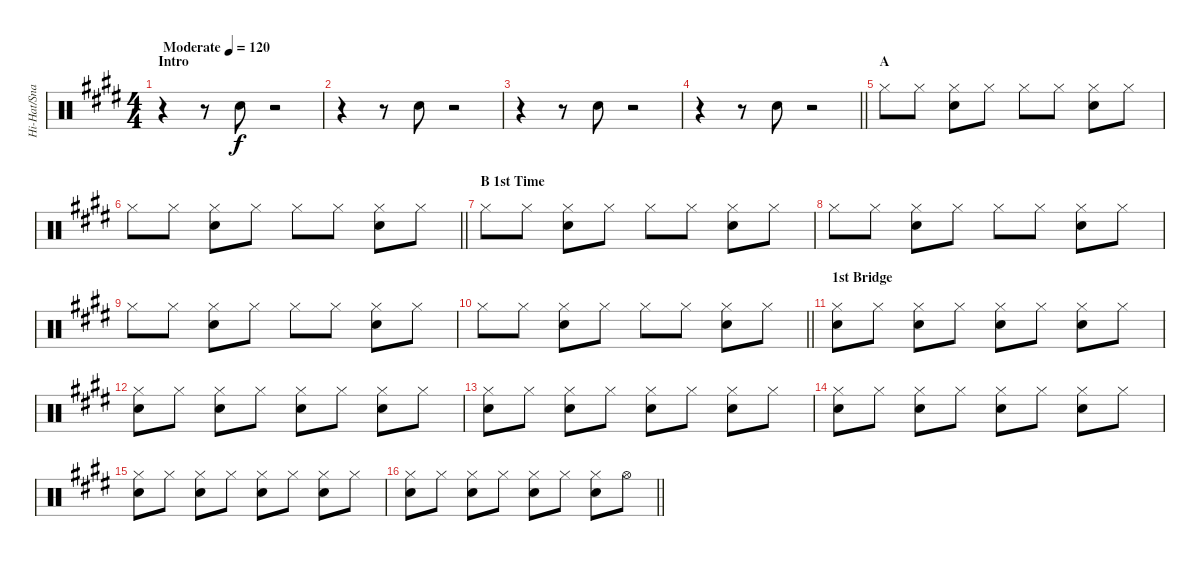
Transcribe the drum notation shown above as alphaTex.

\track ("Hi-Hat/Snare" "Hi-Hat/Sna") {instrument percussion}
\staff {score}
\articulation defaults
\ts (4 4)
\section ("" "Intro")
\tempo (120 "Moderate")
\clef neutral
\ks e
r.4{dy f} r.8 "Snare (hit) 2".8 r.2 |
r.4 r.8 "Snare (hit) 2".8 r.2 |
r.4 r.8 "Snare (hit) 2".8 r.2 |
\barLineRight lightlight
r.4 r.8 "Snare (hit) 2".8 r.2 |
\section ("" "A")
"Hi-Hat (closed)".8 "Hi-Hat (closed)".8 ("Hi-Hat (closed)" "Snare (hit) 2").8 "Hi-Hat (closed)".8 "Hi-Hat (closed)".8 "Hi-Hat (closed)".8 ("Hi-Hat (closed)" "Snare (hit) 2").8 "Hi-Hat (closed)".8 |
\barLineRight lightlight "Hi-Hat (closed)".8 "Hi-Hat (closed)".8
("Hi-Hat (closed)" "Snare (hit) 2").8 "Hi-Hat (closed)".8 "Hi-Hat (closed)".8 "Hi-Hat (closed)".8 ("Hi-Hat (closed)" "Snare (hit) 2").8 "Hi-Hat (closed)".8 |
\section ("" "B 1st Time")
"Hi-Hat (closed)".8 "Hi-Hat (closed)".8 ("Hi-Hat (closed)" "Snare (hit) 2").8 "Hi-Hat (closed)".8 "Hi-Hat (closed)".8 "Hi-Hat (closed)".8 ("Hi-Hat (closed)" "Snare (hit) 2").8 "Hi-Hat (closed)".8 |
"Hi-Hat (closed)".8 "Hi-Hat (closed)".8 ("Hi-Hat (closed)" "Snare (hit) 2").8 "Hi-Hat (closed)".8 "Hi-Hat (closed)".8 "Hi-Hat (closed)".8 ("Hi-Hat (closed)" "Snare (hit) 2").8 "Hi-Hat (closed)".8 |
"Hi-Hat (closed)".8 "Hi-Hat (closed)".8 ("Hi-Hat (closed)" "Snare (hit) 2").8 "Hi-Hat (closed)".8 "Hi-Hat (closed)".8 "Hi-Hat (closed)".8 ("Hi-Hat (closed)" "Snare (hit) 2").8 "Hi-Hat (closed)".8 |
\barLineRight lightlight "Hi-Hat (closed)".8 "Hi-Hat (closed)".8
("Hi-Hat (closed)" "Snare (hit) 2").8 "Hi-Hat (closed)".8 "Hi-Hat (closed)".8 "Hi-Hat (closed)".8 ("Hi-Hat (closed)" "Snare (hit) 2").8 "Hi-Hat (closed)".8 |
\section ("" "1st Bridge")
("Hi-Hat (closed)" "Snare (hit) 2").8 "Hi-Hat (closed)".8 ("Hi-Hat (closed)" "Snare (hit) 2").8 "Hi-Hat (closed)".8 ("Hi-Hat (closed)" "Snare (hit) 2").8 "Hi-Hat (closed)".8 ("Hi-Hat (closed)" "Snare (hit) 2").8 "Hi-Hat (closed)".8 |
("Hi-Hat (closed)" "Snare (hit) 2").8 "Hi-Hat (closed)".8 ("Hi-Hat (closed)" "Snare (hit) 2").8 "Hi-Hat (closed)".8 ("Hi-Hat (closed)" "Snare (hit) 2").8 "Hi-Hat (closed)".8 ("Hi-Hat (closed)" "Snare (hit) 2").8 "Hi-Hat (closed)".8 |
("Hi-Hat (closed)" "Snare (hit) 2").8 "Hi-Hat (closed)".8 ("Hi-Hat (closed)" "Snare (hit) 2").8 "Hi-Hat (closed)".8 ("Hi-Hat (closed)" "Snare (hit) 2").8 "Hi-Hat (closed)".8 ("Hi-Hat (closed)" "Snare (hit) 2").8 "Hi-Hat (closed)".8 |
("Hi-Hat (closed)" "Snare (hit) 2").8 "Hi-Hat (closed)".8 ("Hi-Hat (closed)" "Snare (hit) 2").8 "Hi-Hat (closed)".8 ("Hi-Hat (closed)" "Snare (hit) 2").8 "Hi-Hat (closed)".8 ("Hi-Hat (closed)" "Snare (hit) 2").8 "Hi-Hat (closed)".8 |
("Hi-Hat (closed)" "Snare (hit) 2").8 "Hi-Hat (closed)".8 ("Hi-Hat (closed)" "Snare (hit) 2").8 "Hi-Hat (closed)".8 ("Hi-Hat (closed)" "Snare (hit) 2").8 "Hi-Hat (closed)".8 ("Hi-Hat (closed)" "Snare (hit) 2").8 "Hi-Hat (closed)".8 |
\barLineRight lightlight
("Hi-Hat (closed)" "Snare (hit) 2").8 "Hi-Hat (closed)".8 ("Hi-Hat (closed)" "Snare (hit) 2").8 "Hi-Hat (closed)".8 ("Hi-Hat (closed)" "Snare (hit) 2").8 "Hi-Hat (closed)".8 ("Hi-Hat (closed)" "Snare (hit) 2").8 "Hi-Hat (open)".8
